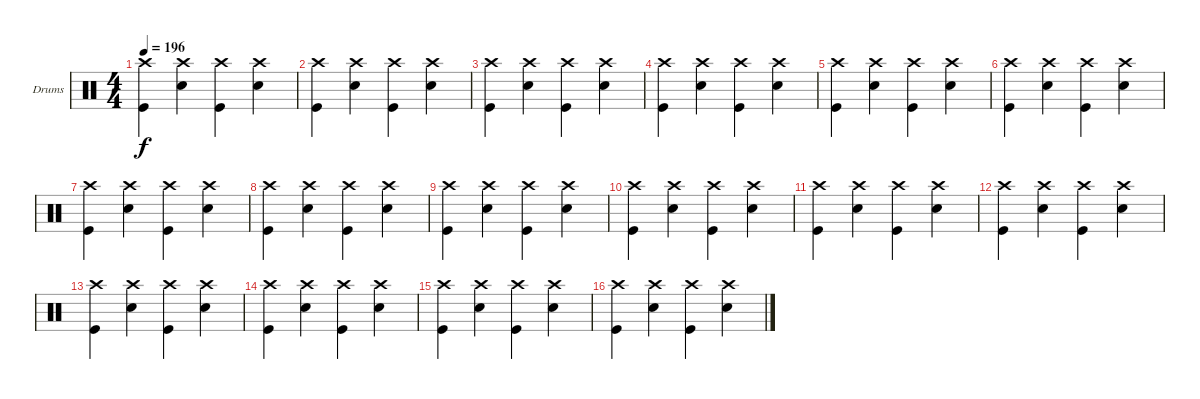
\defaultSystemsLayout 4
\bracketExtendMode groupsimilarinstruments
\firstSystemTrackNameOrientation horizontal
\otherSystemsTrackNameOrientation horizontal
\track ("Lars Ulrich (Drum)" "Drums") {instrument percussion}
\staff {score}
\articulation defaults
\ts (4 4)
\tempo 196
\clef neutral
\scale
0.333333
\ks c
("Crash high (hit)" "Kick (hit)").4{dy f} ("Crash high (hit)" "Snare (hit) 2").4 ("Crash high (hit)" "Kick (hit)").4 ("Crash high (hit)" "Snare (hit) 2").4 |
\scale
0.333333 ("Crash high (hit)" "Kick (hit)").4 ("Crash high (hit)" "Snare (hit) 2").4 ("Crash high (hit)" "Kick (hit)").4 ("Crash high (hit)" "Snare (hit) 2").4 |
\scale
0.333333 ("Crash high (hit)" "Kick (hit)").4 ("Crash high (hit)" "Snare (hit) 2").4 ("Crash high (hit)" "Kick (hit)").4 ("Crash high (hit)" "Snare (hit) 2").4 |
\scale
0.333333 ("Crash high (hit)" "Kick (hit)").4 ("Crash high (hit)" "Snare (hit) 2").4 ("Crash high (hit)" "Kick (hit)").4 ("Crash high (hit)" "Snare (hit) 2").4 |
\scale
0.333333 ("Crash high (hit)" "Kick (hit)").4 ("Crash high (hit)" "Snare (hit) 2").4 ("Crash high (hit)" "Kick (hit)").4 ("Crash high (hit)" "Snare (hit) 2").4 |
\scale
0.333333 ("Crash high (hit)" "Kick (hit)").4 ("Crash high (hit)" "Snare (hit) 2").4 ("Crash high (hit)" "Kick (hit)").4 ("Crash high (hit)" "Snare (hit) 2").4 |
\scale
0.333333 ("Crash high (hit)" "Kick (hit)").4 ("Crash high (hit)" "Snare (hit) 2").4 ("Crash high (hit)" "Kick (hit)").4 ("Crash high (hit)" "Snare (hit) 2").4 |
\scale
0.333333 ("Crash high (hit)" "Kick (hit)").4 ("Crash high (hit)" "Snare (hit) 2").4 ("Crash high (hit)" "Kick (hit)").4 ("Crash high (hit)" "Snare (hit) 2").4 |
\scale
0.333333 ("Crash high (hit)" "Kick (hit)").4 ("Crash high (hit)" "Snare (hit) 2").4 ("Crash high (hit)" "Kick (hit)").4 ("Crash high (hit)" "Snare (hit) 2").4 |
\scale
0.333333 ("Crash high (hit)" "Kick (hit)").4 ("Crash high (hit)" "Snare (hit) 2").4 ("Crash high (hit)" "Kick (hit)").4 ("Crash high (hit)" "Snare (hit) 2").4 |
\scale
0.333333 ("Crash high (hit)" "Kick (hit)").4 ("Crash high (hit)" "Snare (hit) 2").4 ("Crash high (hit)" "Kick (hit)").4 ("Crash high (hit)" "Snare (hit) 2").4 |
\scale
0.333333 ("Crash high (hit)" "Kick (hit)").4 ("Crash high (hit)" "Snare (hit) 2").4 ("Crash high (hit)" "Kick (hit)").4 ("Crash high (hit)" "Snare (hit) 2").4 |
\scale
0.333333 ("Crash high (hit)" "Kick (hit)").4 ("Crash high (hit)" "Snare (hit) 2").4 ("Crash high (hit)" "Kick (hit)").4 ("Crash high (hit)" "Snare (hit) 2").4 |
\scale
0.333333 ("Crash high (hit)" "Kick (hit)").4 ("Crash high (hit)" "Snare (hit) 2").4 ("Crash high (hit)" "Kick (hit)").4 ("Crash high (hit)" "Snare (hit) 2").4 |
\scale
0.333333 ("Crash high (hit)" "Kick (hit)").4 ("Crash high (hit)" "Snare (hit) 2").4 ("Crash high (hit)" "Kick (hit)").4 ("Crash high (hit)" "Snare (hit) 2").4 |
\scale
0.333333 ("Crash high (hit)" "Kick (hit)").4 ("Crash high (hit)" "Snare (hit) 2").4 ("Crash high (hit)" "Kick (hit)").4 ("Crash high (hit)" "Snare (hit) 2").4
